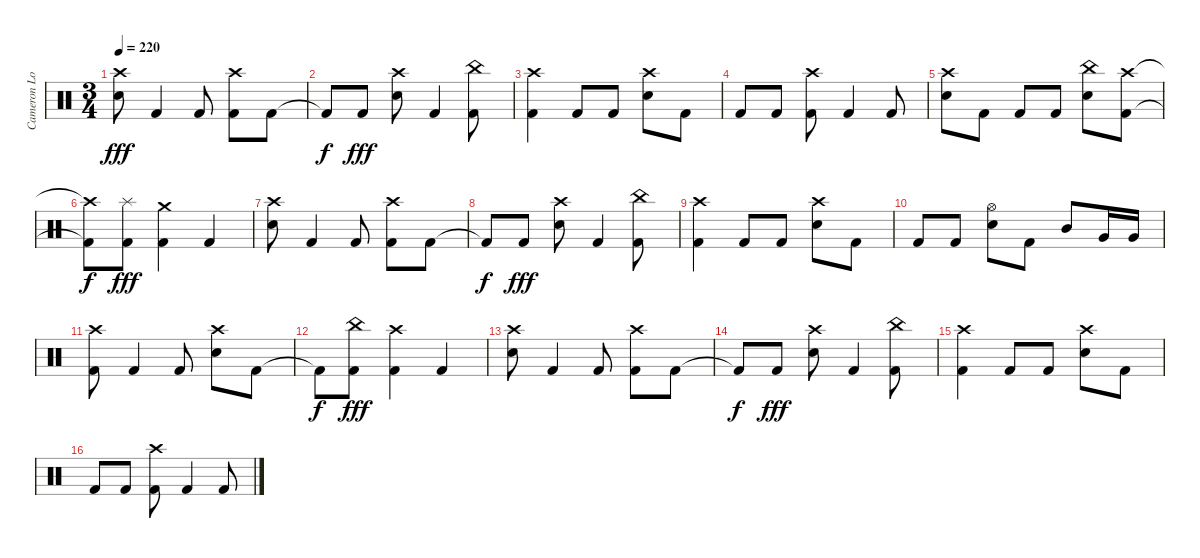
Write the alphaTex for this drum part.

\track ("Cameron Losch - Drums" "Cameron Lo") {instrument percussion}
\staff {score}
\articulation defaults
\ts (3 4)
\tempo 220
\clef neutral
\ks c
("Crash high (hit)" "Electric Snare (hit)").8{dy fff} "Kick (hit) 2".4 "Kick (hit) 2".8 ("Crash high (hit)" "Kick (hit) 2").8 "Kick (hit) 2".8 |
"Kick (hit) 2"{t}.8{dy f} "Kick (hit) 2".8{dy fff} ("Crash high (hit)" "Electric Snare (hit)").8 "Kick (hit) 2".4 ("China (hit)" "Kick (hit) 2").8 |
("Crash high (hit)" "Kick (hit) 2").4 "Kick (hit) 2".8 "Kick (hit) 2".8 ("Crash high (hit)" "Electric Snare (hit)").8 "Kick (hit) 2".8 |
"Kick (hit) 2".8 "Kick (hit) 2".8 ("Crash high (hit)" "Kick (hit) 2").8 "Kick (hit) 2".4 "Kick (hit) 2".8 |
("Crash high (hit)" "Electric Snare (hit)").8 "Kick (hit) 2".8 "Kick (hit) 2".8 "Kick (hit) 2".8 ("China (hit)" "Electric Snare (hit)").8 ("Crash high (hit)" "Kick (hit) 2").8 |
("Crash high (hit)"{t} "Kick (hit) 2"{t}).8{dy f} ("Splash (hit)" "Kick (hit) 2").8{dy fff} ("Crash medium (hit)" "Kick (hit) 2").4 "Kick (hit) 2".4 |
("Crash high (hit)" "Electric Snare (hit)").8 "Kick (hit) 2".4 "Kick (hit) 2".8 ("Crash high (hit)" "Kick (hit) 2").8 "Kick (hit) 2".8 |
"Kick (hit) 2"{t}.8{dy f} "Kick (hit) 2".8{dy fff} ("Crash high (hit)" "Electric Snare (hit)").8 "Kick (hit) 2".4 ("China (hit)" "Kick (hit) 2").8 |
("Crash high (hit)" "Kick (hit) 2").4 "Kick (hit) 2".8 "Kick (hit) 2".8 ("Crash high (hit)" "Electric Snare (hit)").8 "Kick (hit) 2".8 |
"Kick (hit) 2".8 "Kick (hit) 2".8 ("Hi-Hat (open)" "Electric Snare (hit)").8 "Kick (hit) 2".8 "Mid Tom (hit)".8 "Very Low Tom (hit)".16 "Very Low Tom (hit)".16 |
("Crash high (hit)" "Kick (hit) 2").8 "Kick (hit) 2".4 "Kick (hit) 2".8 ("Crash high (hit)" "Electric Snare (hit)").8 "Kick (hit) 2".8 |
"Kick (hit) 2"{t}.8{dy f} ("China (hit)" "Kick (hit) 2").8{dy fff} ("Crash high (hit)" "Kick (hit) 2").4 "Kick (hit) 2".4 |
("Crash high (hit)" "Electric Snare (hit)").8 "Kick (hit) 2".4 "Kick (hit) 2".8 ("Crash high (hit)" "Kick (hit) 2").8 "Kick (hit) 2".8 |
"Kick (hit) 2"{t}.8{dy f} "Kick (hit) 2".8{dy fff} ("Crash high (hit)" "Electric Snare (hit)").8 "Kick (hit) 2".4 ("China (hit)" "Kick (hit) 2").8 |
("Crash high (hit)" "Kick (hit) 2").4 "Kick (hit) 2".8 "Kick (hit) 2".8 ("Crash high (hit)" "Electric Snare (hit)").8 "Kick (hit) 2".8 |
"Kick (hit) 2".8 "Kick (hit) 2".8 ("Crash high (hit)" "Kick (hit) 2").8 "Kick (hit) 2".4 "Kick (hit) 2".8
